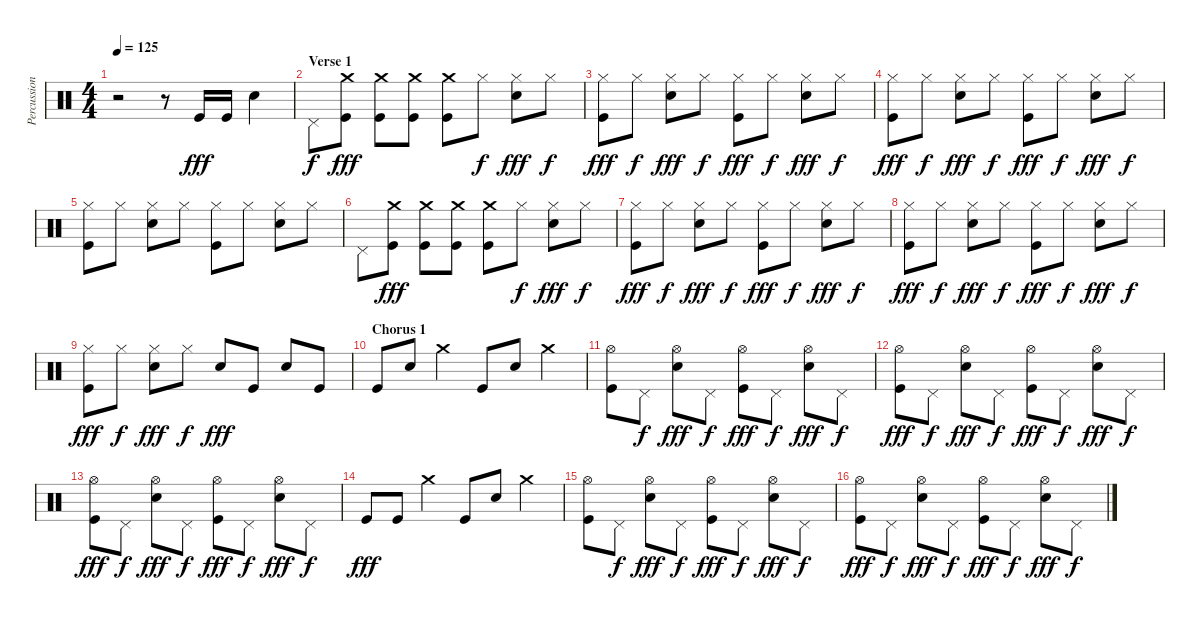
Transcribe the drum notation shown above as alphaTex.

\track ("Percussion" "Percussion") {instrument percussion}
\staff {score}
\articulation defaults
\ts (4 4)
\tempo 125
\clef neutral
\ks c
r.2{dy fff} r.8 "Kick (hit)".16 "Kick (hit)".16 "Snare (hit) 2".4 |
\section ("" "Verse 1")
"Pedal Hi-Hat (hit)".8{dy f} ("Kick (hit)" "Crash medium (hit)").8{dy fff} ("Kick (hit)" "Crash medium (hit)").8 ("Kick (hit)" "Crash medium (hit)").8 ("Kick (hit)" "Crash medium (hit)").8 "Hi-Hat (closed)".8{dy f} ("Snare (hit) 2" "Hi-Hat (closed)").8{dy fff} "Hi-Hat (closed)".8{dy f} |
("Kick (hit)" "Hi-Hat (closed)").8{dy fff} "Hi-Hat (closed)".8{dy f} ("Snare (hit) 2" "Hi-Hat (closed)").8{dy fff} "Hi-Hat (closed)".8{dy f} ("Kick (hit)" "Hi-Hat (closed)").8{dy fff} "Hi-Hat (closed)".8{dy f} ("Snare (hit) 2" "Hi-Hat (closed)").8{dy fff} "Hi-Hat (closed)".8{dy f} |
("Kick (hit)" "Hi-Hat (closed)").8{dy fff} "Hi-Hat (closed)".8{dy f} ("Snare (hit) 2" "Hi-Hat (closed)").8{dy fff} "Hi-Hat (closed)".8{dy f} ("Kick (hit)" "Hi-Hat (closed)").8{dy fff} "Hi-Hat (closed)".8{dy f} ("Snare (hit) 2" "Hi-Hat (closed)").8{dy fff} "Hi-Hat (closed)".8{dy f} |
("Kick (hit)" "Hi-Hat (closed)").8 "Hi-Hat (closed)".8 ("Snare (hit) 2" "Hi-Hat (closed)").8 "Hi-Hat (closed)".8 ("Kick (hit)" "Hi-Hat (closed)").8 "Hi-Hat (closed)".8 ("Snare (hit) 2" "Hi-Hat (closed)").8 "Hi-Hat (closed)".8 |
"Pedal Hi-Hat (hit)".8 ("Kick (hit)" "Crash medium (hit)").8{dy fff} ("Kick (hit)" "Crash medium (hit)").8 ("Kick (hit)" "Crash medium (hit)").8 ("Kick (hit)" "Crash medium (hit)").8 "Hi-Hat (closed)".8{dy f} ("Snare (hit) 2" "Hi-Hat (closed)").8{dy fff} "Hi-Hat (closed)".8{dy f} |
("Kick (hit)" "Hi-Hat (closed)").8{dy fff} "Hi-Hat (closed)".8{dy f} ("Snare (hit) 2" "Hi-Hat (closed)").8{dy fff} "Hi-Hat (closed)".8{dy f} ("Kick (hit)" "Hi-Hat (closed)").8{dy fff} "Hi-Hat (closed)".8{dy f} ("Snare (hit) 2" "Hi-Hat (closed)").8{dy fff} "Hi-Hat (closed)".8{dy f} |
("Kick (hit)" "Hi-Hat (closed)").8{dy fff} "Hi-Hat (closed)".8{dy f} ("Snare (hit) 2" "Hi-Hat (closed)").8{dy fff} "Hi-Hat (closed)".8{dy f} ("Kick (hit)" "Hi-Hat (closed)").8{dy fff} "Hi-Hat (closed)".8{dy f} ("Snare (hit) 2" "Hi-Hat (closed)").8{dy fff} "Hi-Hat (closed)".8{dy f} |
("Kick (hit)" "Hi-Hat (closed)").8{dy fff} "Hi-Hat (closed)".8{dy f} ("Snare (hit) 2" "Hi-Hat (closed)").8{dy fff} "Hi-Hat (closed)".8{dy f} "Snare (hit) 2".8{dy fff} "Kick (hit)".8 "Snare (hit) 2".8 "Kick (hit)".8 |
\section ("" "Chorus 1")
"Kick (hit)".8 "Snare (hit) 2".8 "Crash medium (hit)".4 "Kick (hit)".8 "Snare (hit) 2".8 "Crash medium (hit)".4 |
("Kick (hit)" "Hi-Hat (open)").8 "Pedal Hi-Hat (hit)".8{dy f} ("Snare (hit) 2" "Hi-Hat (open)").8{dy fff} "Pedal Hi-Hat (hit)".8{dy f} ("Kick (hit)" "Hi-Hat (open)").8{dy fff} "Pedal Hi-Hat (hit)".8{dy f} ("Snare (hit) 2" "Hi-Hat (open)").8{dy fff} "Pedal Hi-Hat (hit)".8{dy f} |
("Kick (hit)" "Hi-Hat (open)").8{dy fff} "Pedal Hi-Hat (hit)".8{dy f} ("Snare (hit) 2" "Hi-Hat (open)").8{dy fff} "Pedal Hi-Hat (hit)".8{dy f} ("Kick (hit)" "Hi-Hat (open)").8{dy fff} "Pedal Hi-Hat (hit)".8{dy f} ("Snare (hit) 2" "Hi-Hat (open)").8{dy fff} "Pedal Hi-Hat (hit)".8{dy f} |
("Kick (hit)" "Hi-Hat (open)").8{dy fff} "Pedal Hi-Hat (hit)".8{dy f} ("Snare (hit) 2" "Hi-Hat (open)").8{dy fff} "Pedal Hi-Hat (hit)".8{dy f} ("Kick (hit)" "Hi-Hat (open)").8{dy fff} "Pedal Hi-Hat (hit)".8{dy f} ("Snare (hit) 2" "Hi-Hat (open)").8{dy fff} "Pedal Hi-Hat (hit)".8{dy f} |
"Kick (hit)".8{dy fff} "Kick (hit)".8 "Crash medium (hit)".4 "Kick (hit)".8 "Snare (hit) 2".8 "Crash medium (hit)".4 |
("Kick (hit)" "Hi-Hat (open)").8 "Pedal Hi-Hat (hit)".8{dy f} ("Snare (hit) 2" "Hi-Hat (open)").8{dy fff} "Pedal Hi-Hat (hit)".8{dy f} ("Kick (hit)" "Hi-Hat (open)").8{dy fff} "Pedal Hi-Hat (hit)".8{dy f} ("Snare (hit) 2" "Hi-Hat (open)").8{dy fff} "Pedal Hi-Hat (hit)".8{dy f} |
("Kick (hit)" "Hi-Hat (open)").8{dy fff} "Pedal Hi-Hat (hit)".8{dy f} ("Snare (hit) 2" "Hi-Hat (open)").8{dy fff} "Pedal Hi-Hat (hit)".8{dy f} ("Kick (hit)" "Hi-Hat (open)").8{dy fff} "Pedal Hi-Hat (hit)".8{dy f} ("Snare (hit) 2" "Hi-Hat (open)").8{dy fff} "Pedal Hi-Hat (hit)".8{dy f}
